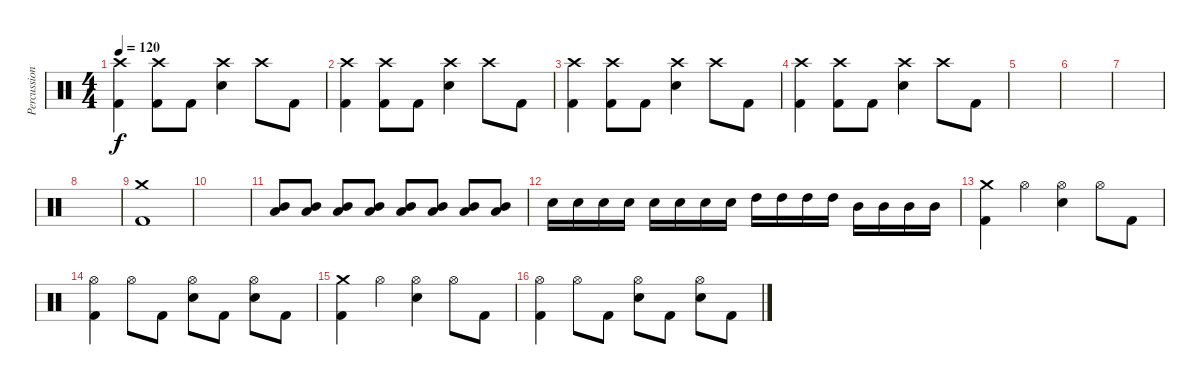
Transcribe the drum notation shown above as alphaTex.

\track ("Percussions" "Percussion") {instrument percussion}
\staff {score}
\articulation defaults
\ts (4 4)
\tempo 120
\clef neutral
\ks c
("Crash high (hit)" "Kick (hit) 2").4{dy f} ("Crash high (hit)" "Kick (hit) 2").8 "Kick (hit) 2".8 ("Crash high (hit)" "Electric Snare (hit)").4 "Crash high (hit)".8 "Kick (hit) 2".8 |
("Crash high (hit)" "Kick (hit) 2").4 ("Crash high (hit)" "Kick (hit) 2").8 "Kick (hit) 2".8 ("Crash high (hit)" "Electric Snare (hit)").4 "Crash high (hit)".8 "Kick (hit) 2".8 |
("Crash high (hit)" "Kick (hit) 2").4 ("Crash high (hit)" "Kick (hit) 2").8 "Kick (hit) 2".8 ("Crash high (hit)" "Electric Snare (hit)").4 "Crash high (hit)".8 "Kick (hit) 2".8 |
("Crash high (hit)" "Kick (hit) 2").4 ("Crash high (hit)" "Kick (hit) 2").8 "Kick (hit) 2".8 ("Crash high (hit)" "Electric Snare (hit)").4 "Crash high (hit)".8 "Kick (hit) 2".8 |
|
|
|
|
("Crash medium (hit)" "Kick (hit) 2").1 |
|
("Mid Tom (hit)" "Low Tom (hit)").8 ("Mid Tom (hit)" "Low Tom (hit)").8 ("Mid Tom (hit)" "Low Tom (hit)").8 ("Mid Tom (hit)" "Low Tom (hit)").8 ("Mid Tom (hit)" "Low Tom (hit)").8 ("Mid Tom (hit)" "Low Tom (hit)").8 ("Mid Tom (hit)" "Low Tom (hit)").8 ("Mid Tom (hit)" "Low Tom (hit)").8 |
"Electric Snare (hit)".16 "Electric Snare (hit)".16 "Electric Snare (hit)".16 "Electric Snare (hit)".16 "Electric Snare (hit)".16 "Electric Snare (hit)".16 "Electric Snare (hit)".16 "Electric Snare (hit)".16 "High Tom (hit)".16 "High Tom (hit)".16 "High Tom (hit)".16 "High Tom (hit)".16 "Mid Tom (hit)".16 "Mid Tom (hit)".16 "Mid Tom (hit)".16 "Mid Tom (hit)".16 |
("Crash medium (hit)" "Kick (hit) 2").4 "Hi-Hat (open)".4 ("Hi-Hat (open)" "Electric Snare (hit)").4 "Hi-Hat (open)".8 "Kick (hit) 2".8 |
("Hi-Hat (open)" "Kick (hit) 2").4 "Hi-Hat (open)".8 "Kick (hit) 2".8 ("Hi-Hat (open)" "Electric Snare (hit)").8 "Kick (hit) 2".8 ("Hi-Hat (open)" "Electric Snare (hit)").8 "Kick (hit) 2".8 |
("Crash medium (hit)" "Kick (hit) 2").4 "Hi-Hat (open)".4 ("Hi-Hat (open)" "Electric Snare (hit)").4 "Hi-Hat (open)".8 "Kick (hit) 2".8 |
("Hi-Hat (open)" "Kick (hit) 2").4 "Hi-Hat (open)".8 "Kick (hit) 2".8 ("Hi-Hat (open)" "Electric Snare (hit)").8 "Kick (hit) 2".8 ("Hi-Hat (open)" "Electric Snare (hit)").8 "Kick (hit) 2".8
